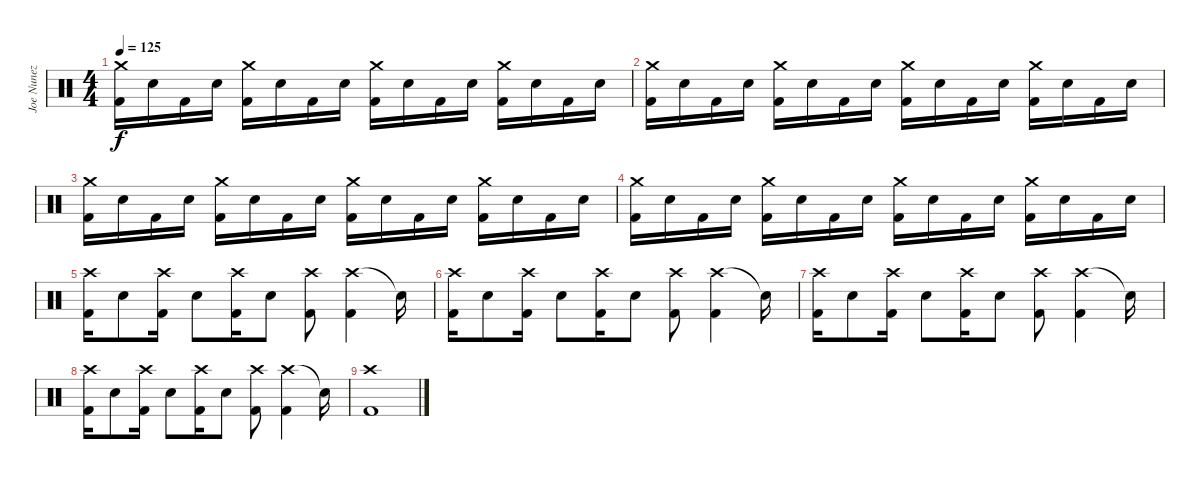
\track ("Joe Nunez" "Joe Nunez") {instrument percussion}
\staff {score}
\articulation defaults
\ts (4 4)
\tempo 125
\clef neutral
\ks c
("Crash medium (hit)" "Kick (hit) 2").16{dy f} "Snare (hit) 2".16 "Kick (hit) 2".16 "Snare (hit) 2".16 ("Crash medium (hit)" "Kick (hit) 2").16 "Snare (hit) 2".16 "Kick (hit) 2".16 "Snare (hit) 2".16 ("Crash medium (hit)" "Kick (hit) 2").16 "Snare (hit) 2".16 "Kick (hit) 2".16 "Snare (hit) 2".16 ("Crash medium (hit)" "Kick (hit) 2").16 "Snare (hit) 2".16 "Kick (hit) 2".16 "Snare (hit) 2".16 |
("Crash medium (hit)" "Kick (hit) 2").16 "Snare (hit) 2".16 "Kick (hit) 2".16 "Snare (hit) 2".16 ("Crash medium (hit)" "Kick (hit) 2").16 "Snare (hit) 2".16 "Kick (hit) 2".16 "Snare (hit) 2".16 ("Crash medium (hit)" "Kick (hit) 2").16 "Snare (hit) 2".16 "Kick (hit) 2".16 "Snare (hit) 2".16 ("Crash medium (hit)" "Kick (hit) 2").16 "Snare (hit) 2".16 "Kick (hit) 2".16 "Snare (hit) 2".16 |
("Crash medium (hit)" "Kick (hit) 2").16 "Snare (hit) 2".16 "Kick (hit) 2".16 "Snare (hit) 2".16 ("Crash medium (hit)" "Kick (hit) 2").16 "Snare (hit) 2".16 "Kick (hit) 2".16 "Snare (hit) 2".16 ("Crash medium (hit)" "Kick (hit) 2").16 "Snare (hit) 2".16 "Kick (hit) 2".16 "Snare (hit) 2".16 ("Crash medium (hit)" "Kick (hit) 2").16 "Snare (hit) 2".16 "Kick (hit) 2".16 "Snare (hit) 2".16 |
("Crash medium (hit)" "Kick (hit) 2").16 "Snare (hit) 2".16 "Kick (hit) 2".16 "Snare (hit) 2".16 ("Crash medium (hit)" "Kick (hit) 2").16 "Snare (hit) 2".16 "Kick (hit) 2".16 "Snare (hit) 2".16 ("Crash medium (hit)" "Kick (hit) 2").16 "Snare (hit) 2".16 "Kick (hit) 2".16 "Snare (hit) 2".16 ("Crash medium (hit)" "Kick (hit) 2").16 "Snare (hit) 2".16 "Kick (hit) 2".16 "Snare (hit) 2".16 |
("Crash high (hit)" "Kick (hit) 2").16 "Snare (hit) 2".8 ("Crash high (hit)" "Kick (hit) 2").16 "Snare (hit) 2".8 ("Crash high (hit)" "Kick (hit) 2").16 "Snare (hit) 2".8 ("Crash high (hit)" "Kick (hit) 2").8 ("Crash high (hit)" "Kick (hit) 2").4 "Snare (hit)"{t}.16 |
("Crash high (hit)" "Kick (hit) 2").16 "Snare (hit) 2".8 ("Crash high (hit)" "Kick (hit) 2").16 "Snare (hit) 2".8 ("Crash high (hit)" "Kick (hit) 2").16 "Snare (hit) 2".8 ("Crash high (hit)" "Kick (hit) 2").8 ("Crash high (hit)" "Kick (hit) 2").4 "Snare (hit)"{t}.16 |
("Crash high (hit)" "Kick (hit) 2").16 "Snare (hit) 2".8 ("Crash high (hit)" "Kick (hit) 2").16 "Snare (hit) 2".8 ("Crash high (hit)" "Kick (hit) 2").16 "Snare (hit) 2".8 ("Crash high (hit)" "Kick (hit) 2").8 ("Crash high (hit)" "Kick (hit) 2").4 "Snare (hit)"{t}.16 |
("Crash high (hit)" "Kick (hit) 2").16 "Snare (hit) 2".8 ("Crash high (hit)" "Kick (hit) 2").16 "Snare (hit) 2".8 ("Crash high (hit)" "Kick (hit) 2").16 "Snare (hit) 2".8 ("Crash high (hit)" "Kick (hit) 2").8 ("Crash high (hit)" "Kick (hit) 2").4 "Snare (hit)"{t}.16 |
("Crash high (hit)" "Kick (hit) 2").1
